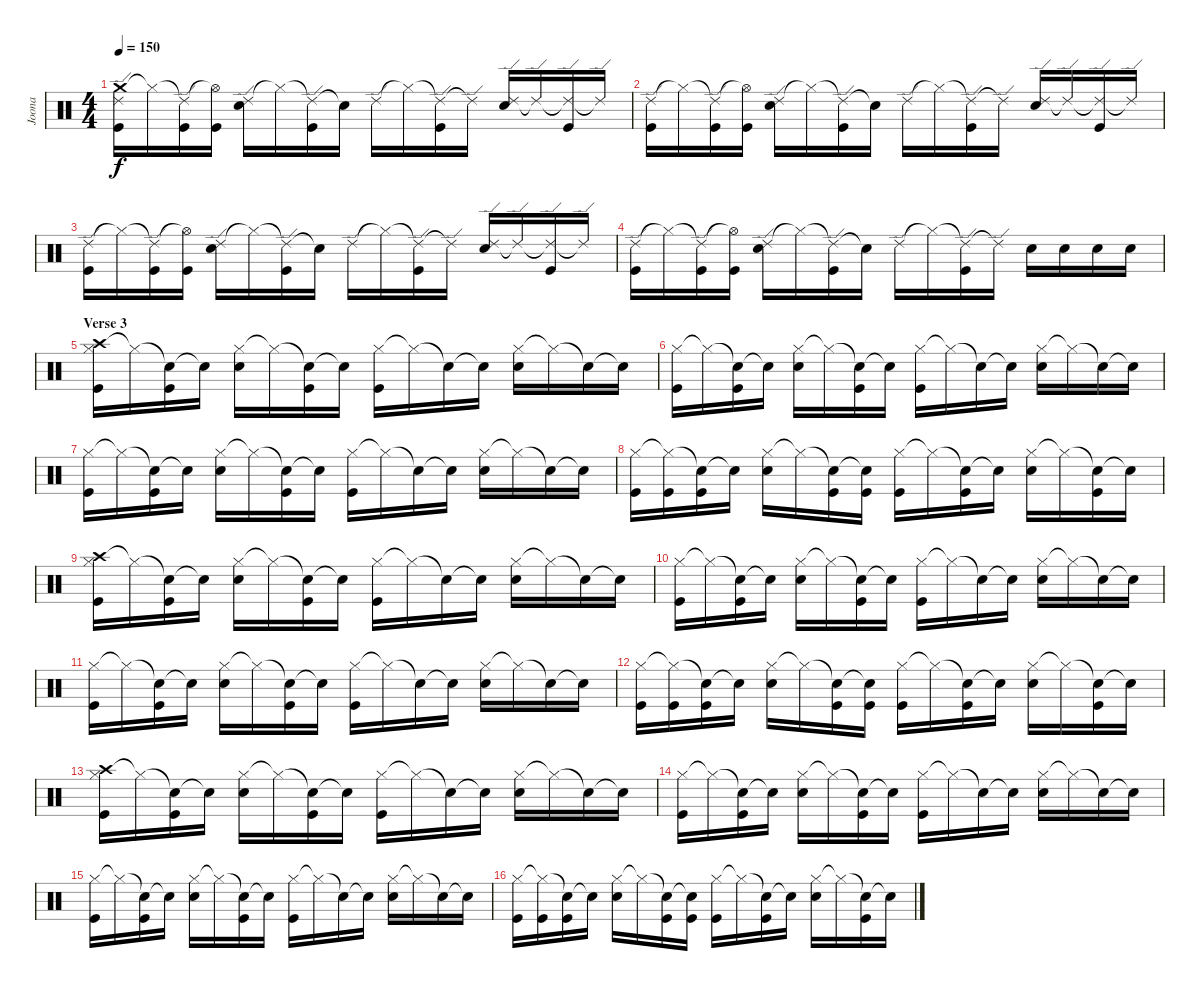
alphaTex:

\track ("Joona" "Joona") {instrument percussion}
\staff {score}
\articulation defaults
\ts (4 4)
\tempo 150
\clef neutral
\ks c
("Crash medium (hit)" "Ride (edge) 2" "Kick (hit)").16{dy f} "Hi-Hat (closed)"{t}.16 ("Ride (edge) 2"{t} "Kick (hit)").16 ("Hi-Hat (open)"{t} "Kick (hit)").16 ("Ride (edge) 2" "Snare (hit) 2").16 "Hi-Hat (closed)"{t}.16 ("Ride (edge) 2"{t} "Kick (hit)").16 "Snare (hit)"{t}.16 "Ride (edge) 2".16 "Hi-Hat (closed)"{t}.16 ("Ride (edge) 2"{t} "Kick (hit)").16 "Ride (edge) 2"{t}.16 ("Ride (edge) 2" "Snare (hit) 2").16 "Ride (edge) 2"{t}.16 ("Ride (edge) 2"{t} "Kick (hit)").16 "Ride (edge) 2"{t}.16 |
("Ride (edge) 2" "Kick (hit)").16 "Hi-Hat (closed)"{t}.16 ("Ride (edge) 2"{t} "Kick (hit)").16 ("Hi-Hat (open)"{t} "Kick (hit)").16 ("Ride (edge) 2" "Snare (hit) 2").16 "Hi-Hat (closed)"{t}.16 ("Ride (edge) 2"{t} "Kick (hit)").16 "Snare (hit)"{t}.16 "Ride (edge) 2".16 "Hi-Hat (closed)"{t}.16 ("Ride (edge) 2"{t} "Kick (hit)").16 "Ride (edge) 2"{t}.16 ("Ride (edge) 2" "Snare (hit) 2").16 "Ride (edge) 2"{t}.16 ("Ride (edge) 2"{t} "Kick (hit)").16 "Ride (edge) 2"{t}.16 |
("Ride (edge) 2" "Kick (hit)").16 "Hi-Hat (closed)"{t}.16 ("Ride (edge) 2"{t} "Kick (hit)").16 ("Hi-Hat (open)"{t} "Kick (hit)").16 ("Ride (edge) 2" "Snare (hit) 2").16 "Hi-Hat (closed)"{t}.16 ("Ride (edge) 2"{t} "Kick (hit)").16 "Snare (hit)"{t}.16 "Ride (edge) 2".16 "Hi-Hat (closed)"{t}.16 ("Ride (edge) 2"{t} "Kick (hit)").16 "Ride (edge) 2"{t}.16 ("Ride (edge) 2" "Snare (hit) 2").16 "Ride (edge) 2"{t}.16 ("Ride (edge) 2"{t} "Kick (hit)").16 "Ride (edge) 2"{t}.16 |
("Ride (edge) 2" "Kick (hit)").16 "Hi-Hat (closed)"{t}.16 ("Ride (edge) 2"{t} "Kick (hit)").16 ("Hi-Hat (open)"{t} "Kick (hit)").16 ("Ride (edge) 2" "Snare (hit) 2").16 "Hi-Hat (closed)"{t}.16 ("Ride (edge) 2"{t} "Kick (hit)").16 "Snare (hit)"{t}.16 "Ride (edge) 2".16 "Hi-Hat (closed)"{t}.16 ("Ride (edge) 2"{t} "Kick (hit)").16 "Ride (edge) 2"{t}.16 "Snare (hit) 2".16 "Snare (hit) 2".16 "Snare (hit) 2".16 "Snare (hit) 2".16 |
\section ("" "Verse 3")
("Crash high (hit)" "Hi-Hat (closed)" "Kick (hit)").16 "Hi-Hat (closed)"{t}.16 ("Snare (hit)"{t} "Kick (hit)").16 "Snare (hit)"{t}.16 ("Hi-Hat (closed)" "Snare (hit) 2").16 "Hi-Hat (closed)"{t}.16 ("Snare (hit)"{t} "Kick (hit)").16 "Snare (hit)"{t}.16 ("Hi-Hat (closed)" "Kick (hit)").16 "Hi-Hat (closed)"{t}.16 "Snare (hit)"{t}.16 "Snare (hit)"{t}.16 ("Hi-Hat (closed)" "Snare (hit) 2").16 "Hi-Hat (closed)"{t}.16 "Snare (hit)"{t}.16 "Snare (hit)"{t}.16 |
("Hi-Hat (closed)" "Kick (hit)").16 "Hi-Hat (closed)"{t}.16 ("Snare (hit)"{t} "Kick (hit)").16 "Snare (hit)"{t}.16 ("Hi-Hat (closed)" "Snare (hit) 2").16 "Hi-Hat (closed)"{t}.16 ("Snare (hit)"{t} "Kick (hit)").16 "Snare (hit)"{t}.16 ("Hi-Hat (closed)" "Kick (hit)").16 "Hi-Hat (closed)"{t}.16 "Snare (hit)"{t}.16 "Snare (hit)"{t}.16 ("Hi-Hat (closed)" "Snare (hit) 2").16 "Hi-Hat (closed)"{t}.16 "Snare (hit)"{t}.16 "Snare (hit)"{t}.16 |
("Hi-Hat (closed)" "Kick (hit)").16 "Hi-Hat (closed)"{t}.16 ("Snare (hit)"{t} "Kick (hit)").16 "Snare (hit)"{t}.16 ("Hi-Hat (closed)" "Snare (hit) 2").16 "Hi-Hat (closed)"{t}.16 ("Snare (hit)"{t} "Kick (hit)").16 "Snare (hit)"{t}.16 ("Hi-Hat (closed)" "Kick (hit)").16 "Hi-Hat (closed)"{t}.16 "Snare (hit)"{t}.16 "Snare (hit)"{t}.16 ("Hi-Hat (closed)" "Snare (hit) 2").16 "Hi-Hat (closed)"{t}.16 "Snare (hit)"{t}.16 "Snare (hit)"{t}.16 |
("Hi-Hat (closed)" "Kick (hit)").16 ("Hi-Hat (closed)"{t} "Kick (hit)").16 ("Snare (hit)"{t} "Kick (hit)").16 "Snare (hit)"{t}.16 ("Hi-Hat (closed)" "Snare (hit) 2").16 "Hi-Hat (closed)"{t}.16 ("Snare (hit)"{t} "Kick (hit)").16 ("Snare (hit)"{t} "Kick (hit)").16 ("Hi-Hat (closed)" "Kick (hit)").16 "Hi-Hat (closed)"{t}.16 ("Snare (hit)"{t} "Kick (hit)").16 "Snare (hit)"{t}.16 ("Hi-Hat (closed)" "Snare (hit) 2").16 "Hi-Hat (closed)"{t}.16 ("Snare (hit)"{t} "Kick (hit)").16 "Snare (hit)"{t}.16 |
("Crash high (hit)" "Hi-Hat (closed)" "Kick (hit)").16 "Hi-Hat (closed)"{t}.16 ("Snare (hit)"{t} "Kick (hit)").16 "Snare (hit)"{t}.16 ("Hi-Hat (closed)" "Snare (hit) 2").16 "Hi-Hat (closed)"{t}.16 ("Snare (hit)"{t} "Kick (hit)").16 "Snare (hit)"{t}.16 ("Hi-Hat (closed)" "Kick (hit)").16 "Hi-Hat (closed)"{t}.16 "Snare (hit)"{t}.16 "Snare (hit)"{t}.16 ("Hi-Hat (closed)" "Snare (hit) 2").16 "Hi-Hat (closed)"{t}.16 "Snare (hit)"{t}.16 "Snare (hit)"{t}.16 |
("Hi-Hat (closed)" "Kick (hit)").16 "Hi-Hat (closed)"{t}.16 ("Snare (hit)"{t} "Kick (hit)").16 "Snare (hit)"{t}.16 ("Hi-Hat (closed)" "Snare (hit) 2").16 "Hi-Hat (closed)"{t}.16 ("Snare (hit)"{t} "Kick (hit)").16 "Snare (hit)"{t}.16 ("Hi-Hat (closed)" "Kick (hit)").16 "Hi-Hat (closed)"{t}.16 "Snare (hit)"{t}.16 "Snare (hit)"{t}.16 ("Hi-Hat (closed)" "Snare (hit) 2").16 "Hi-Hat (closed)"{t}.16 "Snare (hit)"{t}.16 "Snare (hit)"{t}.16 |
("Hi-Hat (closed)" "Kick (hit)").16 "Hi-Hat (closed)"{t}.16 ("Snare (hit)"{t} "Kick (hit)").16 "Snare (hit)"{t}.16 ("Hi-Hat (closed)" "Snare (hit) 2").16 "Hi-Hat (closed)"{t}.16 ("Snare (hit)"{t} "Kick (hit)").16 "Snare (hit)"{t}.16 ("Hi-Hat (closed)" "Kick (hit)").16 "Hi-Hat (closed)"{t}.16 "Snare (hit)"{t}.16 "Snare (hit)"{t}.16 ("Hi-Hat (closed)" "Snare (hit) 2").16 "Hi-Hat (closed)"{t}.16 "Snare (hit)"{t}.16 "Snare (hit)"{t}.16 |
("Hi-Hat (closed)" "Kick (hit)").16 ("Hi-Hat (closed)"{t} "Kick (hit)").16 ("Snare (hit)"{t} "Kick (hit)").16 "Snare (hit)"{t}.16 ("Hi-Hat (closed)" "Snare (hit) 2").16 "Hi-Hat (closed)"{t}.16 ("Snare (hit)"{t} "Kick (hit)").16 ("Snare (hit)"{t} "Kick (hit)").16 ("Hi-Hat (closed)" "Kick (hit)").16 "Hi-Hat (closed)"{t}.16 ("Snare (hit)"{t} "Kick (hit)").16 "Snare (hit)"{t}.16 ("Hi-Hat (closed)" "Snare (hit) 2").16 "Hi-Hat (closed)"{t}.16 ("Snare (hit)"{t} "Kick (hit)").16 "Snare (hit)"{t}.16 |
("Crash high (hit)" "Hi-Hat (closed)" "Kick (hit)").16 "Hi-Hat (closed)"{t}.16 ("Snare (hit)"{t} "Kick (hit)").16 "Snare (hit)"{t}.16 ("Hi-Hat (closed)" "Snare (hit) 2").16 "Hi-Hat (closed)"{t}.16 ("Snare (hit)"{t} "Kick (hit)").16 "Snare (hit)"{t}.16 ("Hi-Hat (closed)" "Kick (hit)").16 "Hi-Hat (closed)"{t}.16 "Snare (hit)"{t}.16 "Snare (hit)"{t}.16 ("Hi-Hat (closed)" "Snare (hit) 2").16 "Hi-Hat (closed)"{t}.16 "Snare (hit)"{t}.16 "Snare (hit)"{t}.16 |
("Hi-Hat (closed)" "Kick (hit)").16 "Hi-Hat (closed)"{t}.16 ("Snare (hit)"{t} "Kick (hit)").16 "Snare (hit)"{t}.16 ("Hi-Hat (closed)" "Snare (hit) 2").16 "Hi-Hat (closed)"{t}.16 ("Snare (hit)"{t} "Kick (hit)").16 "Snare (hit)"{t}.16 ("Hi-Hat (closed)" "Kick (hit)").16 "Hi-Hat (closed)"{t}.16 "Snare (hit)"{t}.16 "Snare (hit)"{t}.16 ("Hi-Hat (closed)" "Snare (hit) 2").16 "Hi-Hat (closed)"{t}.16 "Snare (hit)"{t}.16 "Snare (hit)"{t}.16 |
("Hi-Hat (closed)" "Kick (hit)").16 "Hi-Hat (closed)"{t}.16 ("Snare (hit)"{t} "Kick (hit)").16 "Snare (hit)"{t}.16 ("Hi-Hat (closed)" "Snare (hit) 2").16 "Hi-Hat (closed)"{t}.16 ("Snare (hit)"{t} "Kick (hit)").16 "Snare (hit)"{t}.16 ("Hi-Hat (closed)" "Kick (hit)").16 "Hi-Hat (closed)"{t}.16 "Snare (hit)"{t}.16 "Snare (hit)"{t}.16 ("Hi-Hat (closed)" "Snare (hit) 2").16 "Hi-Hat (closed)"{t}.16 "Snare (hit)"{t}.16 "Snare (hit)"{t}.16 |
("Hi-Hat (closed)" "Kick (hit)").16 ("Hi-Hat (closed)"{t} "Kick (hit)").16 ("Snare (hit)"{t} "Kick (hit)").16 "Snare (hit)"{t}.16 ("Hi-Hat (closed)" "Snare (hit) 2").16 "Hi-Hat (closed)"{t}.16 ("Snare (hit)"{t} "Kick (hit)").16 ("Snare (hit)"{t} "Kick (hit)").16 ("Hi-Hat (closed)" "Kick (hit)").16 "Hi-Hat (closed)"{t}.16 ("Snare (hit)"{t} "Kick (hit)").16 "Snare (hit)"{t}.16 ("Hi-Hat (closed)" "Snare (hit) 2").16 "Hi-Hat (closed)"{t}.16 ("Snare (hit)"{t} "Kick (hit)").16 "Snare (hit)"{t}.16
